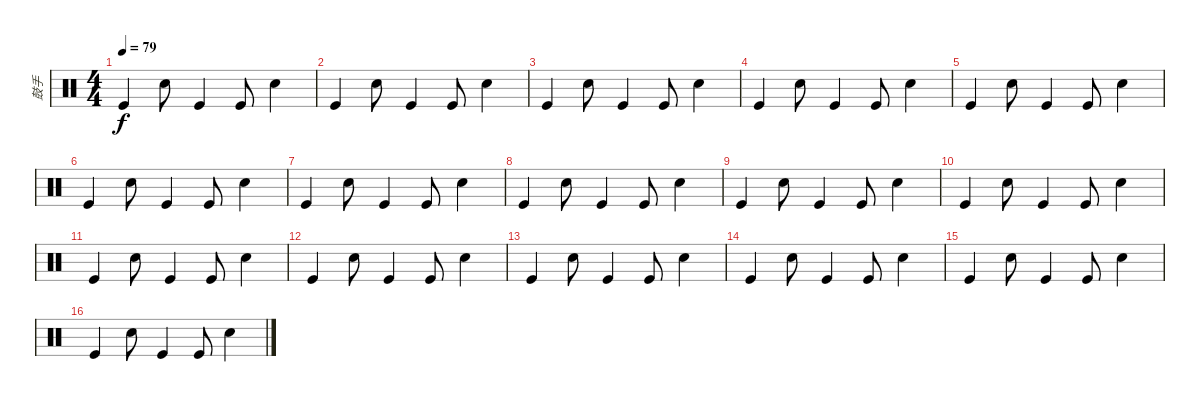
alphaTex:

\track ("鼓手" "鼓手") {instrument percussion}
\staff {score}
\articulation defaults
\ts (4 4)
\tempo 79
\clef neutral
\ks c "Kick (hit)".4{dy f} "Snare (hit) 2".8 "Kick (hit)".4 "Kick (hit)".8 "Snare (hit) 2".4
|
"Kick (hit)".4 "Snare (hit) 2".8 "Kick (hit)".4 "Kick (hit)".8 "Snare (hit) 2".4 |
"Kick (hit)".4 "Snare (hit) 2".8 "Kick (hit)".4 "Kick (hit)".8 "Snare (hit) 2".4 |
"Kick (hit)".4 "Snare (hit) 2".8 "Kick (hit)".4 "Kick (hit)".8 "Snare (hit) 2".4 |
"Kick (hit)".4 "Snare (hit) 2".8 "Kick (hit)".4 "Kick (hit)".8 "Snare (hit) 2".4 |
"Kick (hit)".4 "Snare (hit) 2".8 "Kick (hit)".4 "Kick (hit)".8 "Snare (hit) 2".4 |
"Kick (hit)".4 "Snare (hit) 2".8 "Kick (hit)".4 "Kick (hit)".8 "Snare (hit) 2".4 |
"Kick (hit)".4 "Snare (hit) 2".8 "Kick (hit)".4 "Kick (hit)".8 "Snare (hit) 2".4 |
"Kick (hit)".4 "Snare (hit) 2".8 "Kick (hit)".4 "Kick (hit)".8 "Snare (hit) 2".4 |
"Kick (hit)".4 "Snare (hit) 2".8 "Kick (hit)".4 "Kick (hit)".8 "Snare (hit) 2".4 |
"Kick (hit)".4 "Snare (hit) 2".8 "Kick (hit)".4 "Kick (hit)".8 "Snare (hit) 2".4 |
"Kick (hit)".4 "Snare (hit) 2".8 "Kick (hit)".4 "Kick (hit)".8 "Snare (hit) 2".4 |
"Kick (hit)".4 "Snare (hit) 2".8 "Kick (hit)".4 "Kick (hit)".8 "Snare (hit) 2".4 |
"Kick (hit)".4 "Snare (hit) 2".8 "Kick (hit)".4 "Kick (hit)".8 "Snare (hit) 2".4 |
"Kick (hit)".4 "Snare (hit) 2".8 "Kick (hit)".4 "Kick (hit)".8 "Snare (hit) 2".4 |
"Kick (hit)".4 "Snare (hit) 2".8 "Kick (hit)".4 "Kick (hit)".8 "Snare (hit) 2".4
